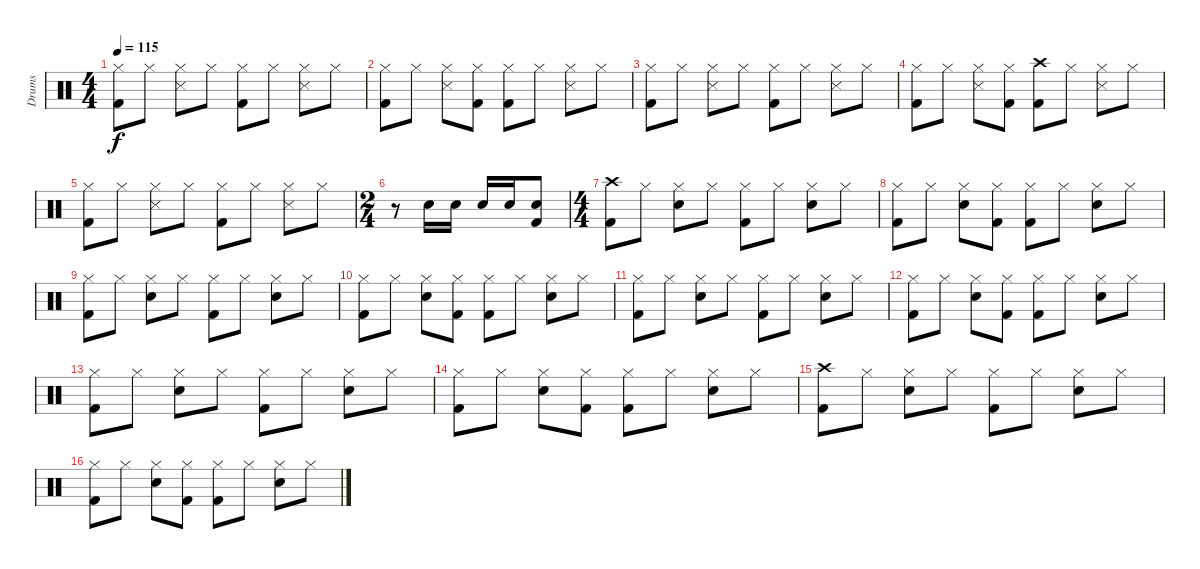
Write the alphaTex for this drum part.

\track ("Drums" "Drums") {instrument percussion}
\staff {score}
\articulation defaults
\ts (4 4)
\tempo 115
\clef neutral
\ks c
("Hi-Hat (closed)" "Kick (hit) 2").8{dy f} "Hi-Hat (closed)".8 ("Hi-Hat (closed)" "Snare (side stick) 3").8 "Hi-Hat (closed)".8 ("Hi-Hat (closed)" "Kick (hit) 2").8 "Hi-Hat (closed)".8 ("Hi-Hat (closed)" "Snare (side stick) 3").8 "Hi-Hat (closed)".8 |
("Hi-Hat (closed)" "Kick (hit) 2").8 "Hi-Hat (closed)".8 ("Hi-Hat (closed)" "Snare (side stick) 3").8 ("Hi-Hat (closed)" "Kick (hit) 2").8 ("Hi-Hat (closed)" "Kick (hit) 2").8 "Hi-Hat (closed)".8 ("Hi-Hat (closed)" "Snare (side stick) 3").8 "Hi-Hat (closed)".8 |
("Hi-Hat (closed)" "Kick (hit) 2").8 "Hi-Hat (closed)".8 ("Hi-Hat (closed)" "Snare (side stick) 3").8 "Hi-Hat (closed)".8 ("Hi-Hat (closed)" "Kick (hit) 2").8 "Hi-Hat (closed)".8 ("Hi-Hat (closed)" "Snare (side stick) 3").8 "Hi-Hat (closed)".8 |
("Hi-Hat (closed)" "Kick (hit) 2").8 "Hi-Hat (closed)".8 ("Hi-Hat (closed)" "Snare (side stick) 3").8 ("Hi-Hat (closed)" "Kick (hit) 2").8 ("Crash high (hit)" "Kick (hit) 2").8 "Hi-Hat (closed)".8 ("Hi-Hat (closed)" "Snare (side stick) 3").8 "Hi-Hat (closed)".8 |
("Hi-Hat (closed)" "Kick (hit) 2").8 "Hi-Hat (closed)".8 ("Hi-Hat (closed)" "Snare (side stick) 3").8 "Hi-Hat (closed)".8 ("Hi-Hat (closed)" "Kick (hit) 2").8 "Hi-Hat (closed)".8 ("Hi-Hat (closed)" "Snare (side stick) 3").8 "Hi-Hat (closed)".8 |
\ts (2 4)
r.8 "Electric Snare (hit)".16 "Electric Snare (hit)".16 "Electric Snare (hit)".16 "Electric Snare (hit)".16 ("Electric Snare (hit)" "Kick (hit) 2").8 |
\ts (4 4)
("Crash high (hit)" "Kick (hit) 2").8 "Hi-Hat (closed)".8 ("Hi-Hat (closed)" "Electric Snare (hit)").8 "Hi-Hat (closed)".8 ("Hi-Hat (closed)" "Kick (hit) 2").8 "Hi-Hat (closed)".8 ("Hi-Hat (closed)" "Electric Snare (hit)").8 "Hi-Hat (closed)".8 |
("Hi-Hat (closed)" "Kick (hit) 2").8 "Hi-Hat (closed)".8 ("Hi-Hat (closed)" "Electric Snare (hit)").8 ("Hi-Hat (closed)" "Kick (hit) 2").8 ("Hi-Hat (closed)" "Kick (hit) 2").8 "Hi-Hat (closed)".8 ("Hi-Hat (closed)" "Electric Snare (hit)").8 "Hi-Hat (closed)".8 |
("Hi-Hat (closed)" "Kick (hit) 2").8 "Hi-Hat (closed)".8 ("Hi-Hat (closed)" "Electric Snare (hit)").8 "Hi-Hat (closed)".8 ("Hi-Hat (closed)" "Kick (hit) 2").8 "Hi-Hat (closed)".8 ("Hi-Hat (closed)" "Electric Snare (hit)").8 "Hi-Hat (closed)".8 |
("Hi-Hat (closed)" "Kick (hit) 2").8 "Hi-Hat (closed)".8 ("Hi-Hat (closed)" "Electric Snare (hit)").8 ("Hi-Hat (closed)" "Kick (hit) 2").8 ("Hi-Hat (closed)" "Kick (hit) 2").8 "Hi-Hat (closed)".8 ("Hi-Hat (closed)" "Electric Snare (hit)").8 "Hi-Hat (closed)".8 |
("Hi-Hat (closed)" "Kick (hit) 2").8 "Hi-Hat (closed)".8 ("Hi-Hat (closed)" "Electric Snare (hit)").8 "Hi-Hat (closed)".8 ("Hi-Hat (closed)" "Kick (hit) 2").8 "Hi-Hat (closed)".8 ("Hi-Hat (closed)" "Electric Snare (hit)").8 "Hi-Hat (closed)".8 |
("Hi-Hat (closed)" "Kick (hit) 2").8 "Hi-Hat (closed)".8 ("Hi-Hat (closed)" "Electric Snare (hit)").8 ("Hi-Hat (closed)" "Kick (hit) 2").8 ("Hi-Hat (closed)" "Kick (hit) 2").8 "Hi-Hat (closed)".8 ("Hi-Hat (closed)" "Electric Snare (hit)").8 "Hi-Hat (closed)".8 |
("Hi-Hat (closed)" "Kick (hit) 2").8 "Hi-Hat (closed)".8 ("Hi-Hat (closed)" "Electric Snare (hit)").8 "Hi-Hat (closed)".8 ("Hi-Hat (closed)" "Kick (hit) 2").8 "Hi-Hat (closed)".8 ("Hi-Hat (closed)" "Electric Snare (hit)").8 "Hi-Hat (closed)".8 |
("Hi-Hat (closed)" "Kick (hit) 2").8 "Hi-Hat (closed)".8 ("Hi-Hat (closed)" "Electric Snare (hit)").8 ("Hi-Hat (closed)" "Kick (hit) 2").8 ("Hi-Hat (closed)" "Kick (hit) 2").8 "Hi-Hat (closed)".8 ("Hi-Hat (closed)" "Electric Snare (hit)").8 "Hi-Hat (closed)".8 |
("Crash high (hit)" "Kick (hit) 2").8 "Hi-Hat (closed)".8 ("Hi-Hat (closed)" "Electric Snare (hit)").8 "Hi-Hat (closed)".8 ("Hi-Hat (closed)" "Kick (hit) 2").8 "Hi-Hat (closed)".8 ("Hi-Hat (closed)" "Electric Snare (hit)").8 "Hi-Hat (closed)".8 |
("Hi-Hat (closed)" "Kick (hit) 2").8 "Hi-Hat (closed)".8 ("Hi-Hat (closed)" "Electric Snare (hit)").8 ("Hi-Hat (closed)" "Kick (hit) 2").8 ("Hi-Hat (closed)" "Kick (hit) 2").8 "Hi-Hat (closed)".8 ("Hi-Hat (closed)" "Electric Snare (hit)").8 "Hi-Hat (closed)".8
